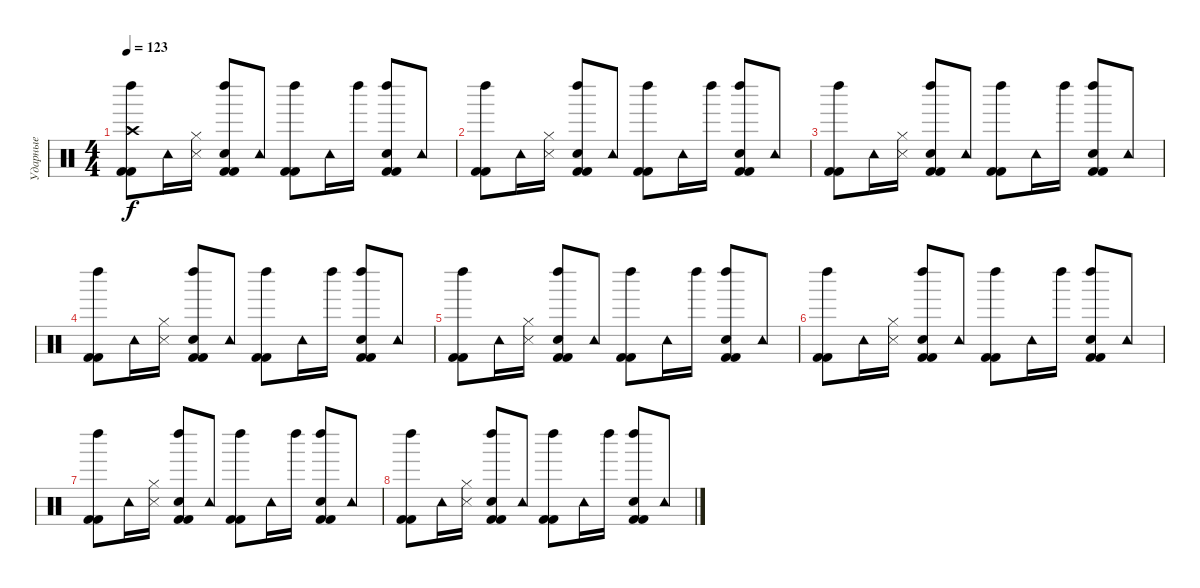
\track ("Ударные" "Ударные") {solo instrument percussion}
\staff {score}
\articulation defaults
\ts (4 4)
\tempo 123
\clef neutral
\ks c
("Kick (hit) 2" "Kick (hit) 2" "Crash high (hit)" "Left Maraca (hit)").8{dy f} "Tambourine (hit)".16 ("Hi-Hat (closed)" "Snare (side stick) 3").16 ("Kick (hit) 2" "Kick (hit) 2" "Left Maraca (hit)" "Hand Clap (hit)").8 "Tambourine (hit)".8 ("Kick (hit) 2" "Kick (hit) 2" "Left Maraca (hit)").8 "Tambourine (hit)".16 "Left Maraca (hit)".16 ("Kick (hit) 2" "Kick (hit) 2" "Left Maraca (hit)" "Hand Clap (hit)").8 "Tambourine (hit)".8 |
("Kick (hit) 2" "Kick (hit) 2" "Left Maraca (hit)").8 "Tambourine (hit)".16 ("Hi-Hat (closed)" "Snare (side stick) 3").16 ("Kick (hit) 2" "Kick (hit) 2" "Left Maraca (hit)" "Hand Clap (hit)").8 "Tambourine (hit)".8 ("Kick (hit) 2" "Kick (hit) 2" "Left Maraca (hit)").8 "Tambourine (hit)".16 "Left Maraca (hit)".16 ("Kick (hit) 2" "Kick (hit) 2" "Left Maraca (hit)" "Hand Clap (hit)").8 "Tambourine (hit)".8 |
("Kick (hit) 2" "Kick (hit) 2" "Left Maraca (hit)").8 "Tambourine (hit)".16 ("Hi-Hat (closed)" "Snare (side stick) 3").16 ("Kick (hit) 2" "Kick (hit) 2" "Left Maraca (hit)" "Hand Clap (hit)").8 "Tambourine (hit)".8 ("Kick (hit) 2" "Kick (hit) 2" "Left Maraca (hit)").8 "Tambourine (hit)".16 "Left Maraca (hit)".16 ("Kick (hit) 2" "Kick (hit) 2" "Left Maraca (hit)" "Hand Clap (hit)").8 "Tambourine (hit)".8 |
("Kick (hit) 2" "Kick (hit) 2" "Left Maraca (hit)").8 "Tambourine (hit)".16 ("Hi-Hat (closed)" "Snare (side stick) 3").16 ("Kick (hit) 2" "Kick (hit) 2" "Left Maraca (hit)" "Hand Clap (hit)").8 "Tambourine (hit)".8 ("Kick (hit) 2" "Kick (hit) 2" "Left Maraca (hit)").8 "Tambourine (hit)".16 "Left Maraca (hit)".16 ("Kick (hit) 2" "Kick (hit) 2" "Left Maraca (hit)" "Hand Clap (hit)").8 "Tambourine (hit)".8 |
("Kick (hit) 2" "Kick (hit) 2" "Left Maraca (hit)").8 "Tambourine (hit)".16 ("Hi-Hat (closed)" "Snare (side stick) 3").16 ("Kick (hit) 2" "Kick (hit) 2" "Left Maraca (hit)" "Hand Clap (hit)").8 "Tambourine (hit)".8 ("Kick (hit) 2" "Kick (hit) 2" "Left Maraca (hit)").8 "Tambourine (hit)".16 "Left Maraca (hit)".16 ("Kick (hit) 2" "Kick (hit) 2" "Left Maraca (hit)" "Hand Clap (hit)").8 "Tambourine (hit)".8 |
("Kick (hit) 2" "Kick (hit) 2" "Left Maraca (hit)").8 "Tambourine (hit)".16 ("Hi-Hat (closed)" "Snare (side stick) 3").16 ("Kick (hit) 2" "Kick (hit) 2" "Left Maraca (hit)" "Hand Clap (hit)").8 "Tambourine (hit)".8 ("Kick (hit) 2" "Kick (hit) 2" "Left Maraca (hit)").8 "Tambourine (hit)".16 "Left Maraca (hit)".16 ("Kick (hit) 2" "Kick (hit) 2" "Left Maraca (hit)" "Hand Clap (hit)").8 "Tambourine (hit)".8 |
("Kick (hit) 2" "Kick (hit) 2" "Left Maraca (hit)").8 "Tambourine (hit)".16 ("Hi-Hat (closed)" "Snare (side stick) 3").16 ("Kick (hit) 2" "Kick (hit) 2" "Left Maraca (hit)" "Hand Clap (hit)").8 "Tambourine (hit)".8 ("Kick (hit) 2" "Kick (hit) 2" "Left Maraca (hit)").8 "Tambourine (hit)".16 "Left Maraca (hit)".16 ("Kick (hit) 2" "Kick (hit) 2" "Left Maraca (hit)" "Hand Clap (hit)").8 "Tambourine (hit)".8 |
("Kick (hit) 2" "Kick (hit) 2" "Left Maraca (hit)").8 "Tambourine (hit)".16 ("Hi-Hat (closed)" "Snare (side stick) 3").16 ("Kick (hit) 2" "Kick (hit) 2" "Left Maraca (hit)" "Hand Clap (hit)").8 "Tambourine (hit)".8 ("Kick (hit) 2" "Kick (hit) 2" "Left Maraca (hit)").8 "Tambourine (hit)".16 "Left Maraca (hit)".16 ("Kick (hit) 2" "Kick (hit) 2" "Left Maraca (hit)" "Hand Clap (hit)").8 "Tambourine (hit)".8
